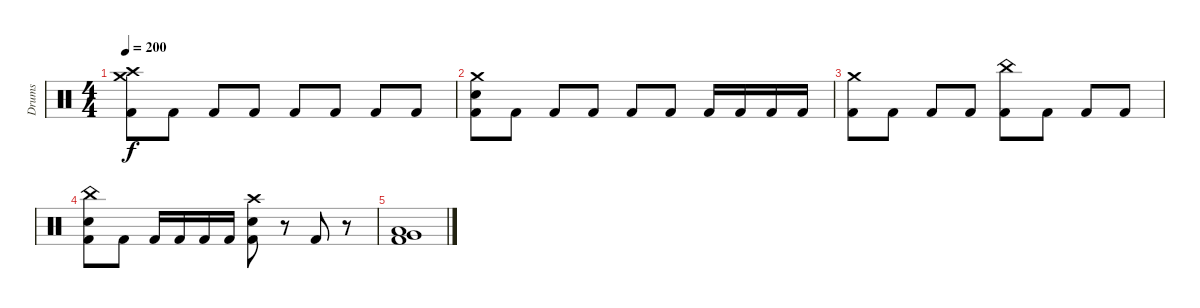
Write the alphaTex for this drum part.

\track ("Drums" "Drums") {instrument percussion}
\staff
\articulation defaults
\ts (4 4)
\tempo 200
\clef neutral
\ks c
("Crash medium (hit)" "Crash high (hit)" "Kick (hit) 2").8{dy f} "Kick (hit) 2".8 "Kick (hit) 2".8 "Kick (hit) 2".8 "Kick (hit) 2".8 "Kick (hit) 2".8 "Kick (hit) 2".8 "Kick (hit) 2".8 |
("Crash medium (hit)" "Electric Snare (hit)" "Kick (hit) 2").8 "Kick (hit) 2".8 "Kick (hit) 2".8 "Kick (hit) 2".8 "Kick (hit) 2".8 "Kick (hit) 2".8 "Kick (hit) 2".16 "Kick (hit) 2".16 "Kick (hit) 2".16 "Kick (hit) 2".16 |
("Crash medium (hit)" "Kick (hit) 2").8 "Kick (hit) 2".8 "Kick (hit) 2".8 "Kick (hit) 2".8 ("China (hit)" "Kick (hit) 2").8 "Kick (hit) 2".8 "Kick (hit) 2".8 "Kick (hit) 2".8 |
("China (hit)" "Electric Snare (hit)" "Kick (hit) 2").8 "Kick (hit) 2".8 "Kick (hit) 2".16 "Kick (hit) 2".16 "Kick (hit) 2".16 "Kick (hit) 2".16 ("Crash high (hit)" "Electric Snare (hit)" "Kick (hit) 2").8 r.8 "Kick (hit) 2".8 r.8 |
("Very Low Tom (hit)" "Low Floor Tom (hit)" "Kick (hit) 2").1
